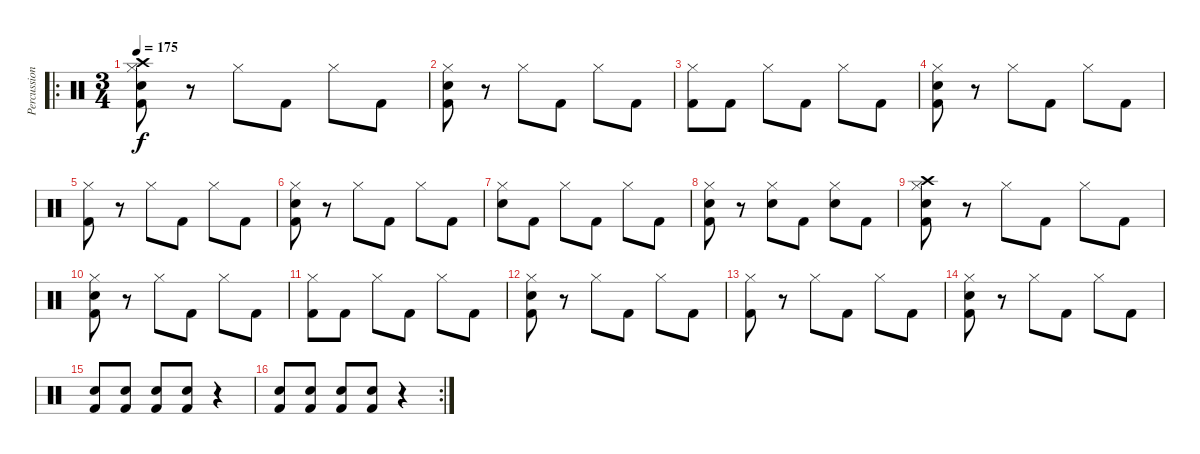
\track ("Percussion" "Percussion") {instrument percussion}
\staff {score}
\articulation defaults
\ro
\ts (3 4)
\tempo 175
\clef neutral
\ks c
("Hi-Hat (closed)" "Crash high (hit)" "Electric Snare (hit)" "Kick (hit) 2").8{dy f} r.8 "Hi-Hat (closed)".8 "Kick (hit) 2".8 "Hi-Hat (closed)".8 "Kick (hit) 2".8 |
("Hi-Hat (closed)" "Electric Snare (hit)" "Kick (hit) 2").8 r.8 "Hi-Hat (closed)".8 "Kick (hit) 2".8 "Hi-Hat (closed)".8 "Kick (hit) 2".8 |
("Hi-Hat (closed)" "Kick (hit) 2").8 "Kick (hit) 2".8 "Hi-Hat (closed)".8 "Kick (hit) 2".8 "Hi-Hat (closed)".8 "Kick (hit) 2".8 |
("Hi-Hat (closed)" "Electric Snare (hit)" "Kick (hit) 2").8 r.8 "Hi-Hat (closed)".8 "Kick (hit) 2".8 "Hi-Hat (closed)".8 "Kick (hit) 2".8 |
("Hi-Hat (closed)" "Kick (hit) 2").8 r.8 "Hi-Hat (closed)".8 "Kick (hit) 2".8 "Hi-Hat (closed)".8 "Kick (hit) 2".8 |
("Hi-Hat (closed)" "Electric Snare (hit)" "Kick (hit) 2").8 r.8 "Hi-Hat (closed)".8 "Kick (hit) 2".8 "Hi-Hat (closed)".8 "Kick (hit) 2".8 |
("Hi-Hat (closed)" "Electric Snare (hit)").8 "Kick (hit) 2".8 "Hi-Hat (closed)".8 "Kick (hit) 2".8 "Hi-Hat (closed)".8 "Kick (hit) 2".8 |
("Hi-Hat (closed)" "Electric Snare (hit)" "Kick (hit) 2").8 r.8 ("Hi-Hat (closed)" "Electric Snare (hit)").8 "Kick (hit) 2".8 ("Hi-Hat (closed)" "Electric Snare (hit)").8 "Kick (hit) 2".8 |
("Hi-Hat (closed)" "Crash high (hit)" "Electric Snare (hit)" "Kick (hit) 2").8 r.8 "Hi-Hat (closed)".8 "Kick (hit) 2".8 "Hi-Hat (closed)".8 "Kick (hit) 2".8 |
("Hi-Hat (closed)" "Electric Snare (hit)" "Kick (hit) 2").8 r.8 "Hi-Hat (closed)".8 "Kick (hit) 2".8 "Hi-Hat (closed)".8 "Kick (hit) 2".8 |
("Hi-Hat (closed)" "Kick (hit) 2").8 "Kick (hit) 2".8 "Hi-Hat (closed)".8 "Kick (hit) 2".8 "Hi-Hat (closed)".8 "Kick (hit) 2".8 |
("Hi-Hat (closed)" "Electric Snare (hit)" "Kick (hit) 2").8 r.8 "Hi-Hat (closed)".8 "Kick (hit) 2".8 "Hi-Hat (closed)".8 "Kick (hit) 2".8 |
("Hi-Hat (closed)" "Kick (hit) 2").8 r.8 "Hi-Hat (closed)".8 "Kick (hit) 2".8 "Hi-Hat (closed)".8 "Kick (hit) 2".8 |
("Hi-Hat (closed)" "Electric Snare (hit)" "Kick (hit) 2").8 r.8 "Hi-Hat (closed)".8 "Kick (hit) 2".8 "Hi-Hat (closed)".8 "Kick (hit) 2".8 |
("Electric Snare (hit)" "Kick (hit) 2").8 ("Electric Snare (hit)" "Kick (hit) 2").8 ("Electric Snare (hit)" "Kick (hit) 2").8 ("Electric Snare (hit)" "Kick (hit) 2").8 r.4 |
\rc 2
("Electric Snare (hit)" "Kick (hit) 2").8 ("Electric Snare (hit)" "Kick (hit) 2").8 ("Electric Snare (hit)" "Kick (hit) 2").8 ("Electric Snare (hit)" "Kick (hit) 2").8 r.4
